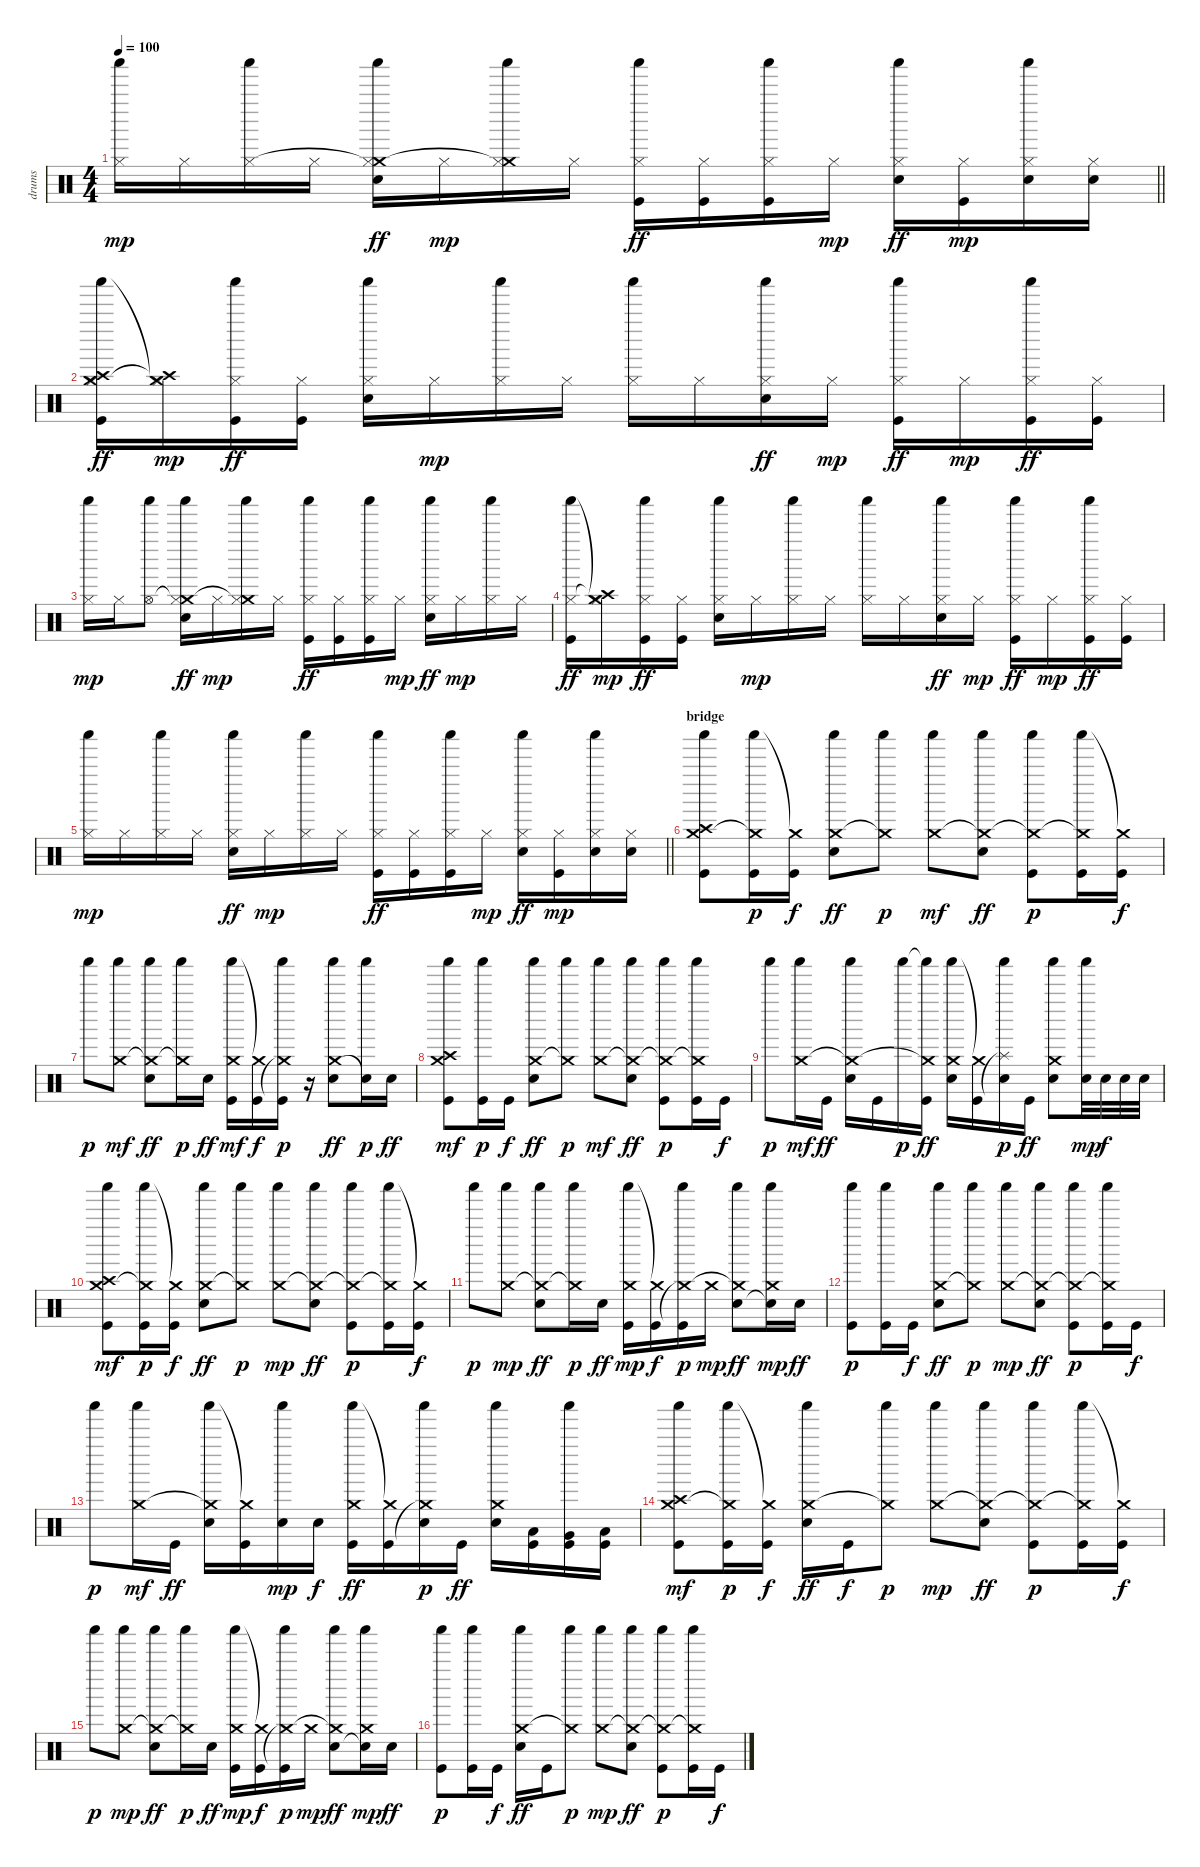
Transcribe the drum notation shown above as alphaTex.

\track ("drums" "drums") {instrument percussion}
\staff {score}
\articulation defaults
\ts (4 4)
\tempo 100
\clef neutral
\barLineRight lightlight
\ks c
("Shaker (hit)" "Hi-Hat (closed)").16{dy mp} "Hi-Hat (closed)".16 ("Shaker (hit)" "Hi-Hat (closed)").16 "Hi-Hat (closed)".16 ("Shaker (hit)" "Crash medium (hit)"{t} "Hi-Hat (closed)" "Electric Snare (hit)").16{dy ff} "Hi-Hat (closed)".16{dy mp} ("Shaker (hit)" "Crash medium (hit)"{t} "Hi-Hat (closed)").16 "Hi-Hat (closed)".16 ("Shaker (hit)" "Hi-Hat (closed)" "Kick (hit)").16{dy ff} ("Hi-Hat (closed)" "Kick (hit)").16 ("Shaker (hit)" "Hi-Hat (closed)" "Kick (hit)").16 "Hi-Hat (closed)".16{dy mp} ("Shaker (hit)" "Hi-Hat (closed)" "Electric Snare (hit)").16{dy ff} ("Hi-Hat (closed)" "Kick (hit)").16{dy mp} ("Shaker (hit)" "Hi-Hat (closed)" "Electric Snare (hit)").16 ("Hi-Hat (closed)" "Electric Snare (hit)").16 |
("Shaker (hit)" "Crash medium (hit)" "Crash high (hit)" "Hi-Hat (closed)" "Kick (hit)").16{dy ff} ("Crash medium (hit)"{t} "Crash high (hit)"{t} "Hi-Hat (closed)").16{dy mp} ("Shaker (hit)" "Hi-Hat (closed)" "Kick (hit)").16{dy ff} ("Hi-Hat (closed)" "Kick (hit)").16 ("Shaker (hit)" "Hi-Hat (closed)" "Electric Snare (hit)").16 "Hi-Hat (closed)".16{dy mp} ("Shaker (hit)" "Hi-Hat (closed)").16 "Hi-Hat (closed)".16 ("Shaker (hit)" "Hi-Hat (closed)").16 "Hi-Hat (closed)".16 ("Shaker (hit)" "Hi-Hat (closed)" "Electric Snare (hit)").16{dy ff} "Hi-Hat (closed)".16{dy mp} ("Shaker (hit)" "Hi-Hat (closed)" "Kick (hit)").16{dy ff} "Hi-Hat (closed)".16{dy mp} ("Shaker (hit)" "Hi-Hat (closed)" "Kick (hit)").16{dy ff} ("Hi-Hat (closed)" "Kick (hit)").16 |
("Shaker (hit)" "Hi-Hat (closed)").16{dy mp} "Hi-Hat (closed)".16 ("Shaker (hit)" "Hi-Hat (open)").8 ("Shaker (hit)" "Crash medium (hit)"{t} "Hi-Hat (closed)" "Electric Snare (hit)").16{dy ff} "Hi-Hat (closed)".16{dy mp} ("Shaker (hit)" "Crash medium (hit)"{t} "Hi-Hat (closed)").16 "Hi-Hat (closed)".16 ("Shaker (hit)" "Hi-Hat (closed)" "Kick (hit)").16{dy ff} ("Hi-Hat (closed)" "Kick (hit)").16 ("Shaker (hit)" "Hi-Hat (closed)" "Kick (hit)").16 "Hi-Hat (closed)".16{dy mp} ("Shaker (hit)" "Hi-Hat (closed)" "Electric Snare (hit)").16{dy ff} "Hi-Hat (closed)".16{dy mp} ("Shaker (hit)" "Hi-Hat (closed)").16 "Hi-Hat (closed)".16 |
("Shaker (hit)" "Hi-Hat (closed)" "Kick (hit)").16{dy ff} ("Crash medium (hit)"{t} "Crash high (hit)"{t} "Hi-Hat (closed)").16{dy mp} ("Shaker (hit)" "Hi-Hat (closed)" "Kick (hit)").16{dy ff} ("Hi-Hat (closed)" "Kick (hit)").16 ("Shaker (hit)" "Hi-Hat (closed)" "Electric Snare (hit)").16 "Hi-Hat (closed)".16{dy mp} ("Shaker (hit)" "Hi-Hat (closed)").16 "Hi-Hat (closed)".16 ("Shaker (hit)" "Hi-Hat (closed)").16 "Hi-Hat (closed)".16 ("Shaker (hit)" "Hi-Hat (closed)" "Electric Snare (hit)").16{dy ff} "Hi-Hat (closed)".16{dy mp} ("Shaker (hit)" "Hi-Hat (closed)" "Kick (hit)").16{dy ff} "Hi-Hat (closed)".16{dy mp} ("Shaker (hit)" "Hi-Hat (closed)" "Kick (hit)").16{dy ff} ("Hi-Hat (closed)" "Kick (hit)").16 |
\barLineRight lightlight
("Shaker (hit)" "Hi-Hat (closed)").16{dy mp} "Hi-Hat (closed)".16 ("Shaker (hit)" "Hi-Hat (closed)").16 "Hi-Hat (closed)".16 ("Shaker (hit)" "Hi-Hat (closed)" "Electric Snare (hit)").16{dy ff} "Hi-Hat (closed)".16{dy mp} ("Shaker (hit)" "Hi-Hat (closed)").16 "Hi-Hat (closed)".16 ("Shaker (hit)" "Hi-Hat (closed)" "Kick (hit)").16{dy ff} ("Hi-Hat (closed)" "Kick (hit)").16 ("Shaker (hit)" "Hi-Hat (closed)" "Kick (hit)").16 "Hi-Hat (closed)".16{dy mp} ("Shaker (hit)" "Hi-Hat (closed)" "Electric Snare (hit)").16{dy ff} ("Hi-Hat (closed)" "Kick (hit)").16{dy mp} ("Shaker (hit)" "Hi-Hat (closed)" "Electric Snare (hit)").16 ("Hi-Hat (closed)" "Electric Snare (hit)").16 |
\section ("" "bridge")
("Shaker (hit)" "Crash medium (hit)" "Crash high (hit)" "Kick (hit)").8 ("Shaker (hit)" "Crash medium (hit)"{t} "Kick (hit)").16{dy p} ("Crash medium (hit)"{t} "Kick (hit)").16{dy f} ("Shaker (hit)" "Crash medium (hit)" "Electric Snare (hit)").8{dy ff} ("Shaker (hit)" "Crash medium (hit)"{t}).8{dy p} ("Shaker (hit)" "Crash medium (hit)").8{dy mf} ("Shaker (hit)" "Crash medium (hit)"{t} "Electric Snare (hit)").8{dy ff} ("Shaker (hit)" "Crash medium (hit)"{t} "Kick (hit)").8{dy p} ("Shaker (hit)" "Crash medium (hit)"{t} "Kick (hit)").16 ("Crash medium (hit)"{t} "Kick (hit)").16{dy f} |
"Shaker (hit)".8{dy p} ("Shaker (hit)" "Crash medium (hit)").8{dy mf} ("Shaker (hit)" "Crash medium (hit)"{t} "Electric Snare (hit)").8{dy ff} ("Shaker (hit)" "Crash medium (hit)"{t}).16{dy p} "Electric Snare (hit)".16{dy ff} ("Shaker (hit)" "Crash medium (hit)" "Kick (hit)").16{dy mf} ("Crash medium (hit)"{t} "Kick (hit)").16{dy f} ("Shaker (hit)" "Crash medium (hit)"{t} "Kick (hit)").16{dy p} r.16 ("Shaker (hit)" "Crash medium (hit)" "Electric Snare (hit)").8{dy ff} ("Shaker (hit)" "Electric Snare (hit)"{t}).16{dy p} "Electric Snare (hit)".16{dy ff} |
("Shaker (hit)" "Crash medium (hit)" "Crash high (hit)" "Kick (hit)").8{dy mf} ("Shaker (hit)" "Kick (hit)").16{dy p} "Kick (hit)".16{dy f} ("Shaker (hit)" "Crash medium (hit)" "Electric Snare (hit)").8{dy ff} ("Shaker (hit)" "Crash medium (hit)"{t}).8{dy p} ("Shaker (hit)" "Crash medium (hit)").8{dy mf} ("Shaker (hit)" "Crash medium (hit)"{t} "Electric Snare (hit)").8{dy ff} ("Shaker (hit)" "Crash medium (hit)"{t} "Kick (hit)").8{dy p} ("Shaker (hit)" "Crash medium (hit)"{t} "Kick (hit)").16 "Kick (hit)".16{dy f} |
"Shaker (hit)".8{dy p} ("Shaker (hit)" "Crash medium (hit)").16{dy mf} "Kick (hit)".16{dy ff} ("Shaker (hit)" "Crash medium (hit)"{t} "Electric Snare (hit)").16 "Kick (hit)".16 "Shaker (hit)".16{dy p} ("Shaker (hit)"{t} "Crash medium (hit)"{t} "Kick (hit)").16{dy ff} ("Shaker (hit)" "Crash medium (hit)" "Electric Snare (hit)").16 ("Crash medium (hit)"{t} "Kick (hit)").16 ("Shaker (hit)" "Splash (hit)"{t} "Electric Snare (hit)").16{dy p} "Kick (hit)".16{dy ff} ("Shaker (hit)" "Crash medium (hit)" "Electric Snare (hit)").8 ("Shaker (hit)" "Electric Snare (hit)").32{dy mp} "Electric Snare (hit)".32{dy f} "Electric Snare (hit)".32 "Electric Snare (hit)".32 |
("Shaker (hit)" "Crash medium (hit)" "Crash high (hit)" "Kick (hit)").8{dy mf} ("Shaker (hit)" "Crash medium (hit)"{t} "Kick (hit)").16{dy p} ("Crash medium (hit)"{t} "Kick (hit)").16{dy f} ("Shaker (hit)" "Crash medium (hit)" "Electric Snare (hit)").8{dy ff} ("Shaker (hit)" "Crash medium (hit)"{t}).8{dy p} ("Shaker (hit)" "Crash medium (hit)").8{dy mp} ("Shaker (hit)" "Crash medium (hit)"{t} "Electric Snare (hit)").8{dy ff} ("Shaker (hit)" "Crash medium (hit)"{t} "Kick (hit)").8{dy p} ("Shaker (hit)" "Crash medium (hit)"{t} "Kick (hit)").16 ("Crash medium (hit)"{t} "Kick (hit)").16{dy f} |
"Shaker (hit)".8{dy p} ("Shaker (hit)" "Crash medium (hit)").8{dy mp} ("Shaker (hit)" "Crash medium (hit)"{t} "Electric Snare (hit)").8{dy ff} ("Shaker (hit)" "Crash medium (hit)"{t}).16{dy p} "Electric Snare (hit)".16{dy ff} ("Shaker (hit)" "Crash medium (hit)" "Kick (hit)").16{dy mp} ("Crash medium (hit)"{t} "Kick (hit)").16{dy f} ("Shaker (hit)" "Crash medium (hit)"{t} "Kick (hit)").16{dy p} "Crash medium (hit)".16{dy mp} ("Shaker (hit)" "Crash medium (hit)"{t} "Electric Snare (hit)").8{dy ff} ("Shaker (hit)" "Crash medium (hit)" "Electric Snare (hit)"{t}).16{dy mp} "Electric Snare (hit)".16{dy ff} |
("Shaker (hit)" "Kick (hit)").8{dy p} ("Shaker (hit)" "Kick (hit)").16 "Kick (hit)".16{dy f} ("Shaker (hit)" "Crash medium (hit)" "Electric Snare (hit)").8{dy ff} ("Shaker (hit)" "Crash medium (hit)"{t}).8{dy p} ("Shaker (hit)" "Crash medium (hit)").8{dy mp} ("Shaker (hit)" "Crash medium (hit)"{t} "Electric Snare (hit)").8{dy ff} ("Shaker (hit)" "Crash medium (hit)"{t} "Kick (hit)").8{dy p} ("Shaker (hit)" "Crash medium (hit)"{t} "Kick (hit)").16 "Kick (hit)".16{dy f} |
"Shaker (hit)".8{dy p} ("Shaker (hit)" "Crash medium (hit)").16{dy mf} "Kick (hit)".16{dy ff} ("Shaker (hit)" "Crash medium (hit)"{t} "Electric Snare (hit)").16 ("Crash medium (hit)"{t} "Kick (hit)").16 ("Shaker (hit)" "Electric Snare (hit)").16{dy mp} "Electric Snare (hit)".16{dy f} ("Shaker (hit)" "Crash medium (hit)" "Kick (hit)").16{dy ff} ("Crash medium (hit)"{t} "Kick (hit)").16 ("Shaker (hit)" "Crash medium (hit)"{t} "Electric Snare (hit)").16{dy p} "Kick (hit)".16{dy ff} ("Shaker (hit)" "Crash medium (hit)" "Electric Snare (hit)").16 ("Low Tom (hit)" "Kick (hit)").16 ("Shaker (hit)" "Very Low Tom (hit)" "Kick (hit)").16 ("Low Floor Tom (hit)" "Kick (hit)").16 |
("Shaker (hit)" "Crash medium (hit)" "Crash high (hit)" "Kick (hit)").8{dy mf} ("Shaker (hit)" "Crash medium (hit)"{t} "Kick (hit)").16{dy p} ("Crash medium (hit)"{t} "Kick (hit)").16{dy f} ("Shaker (hit)" "Crash medium (hit)" "Electric Snare (hit)").16{dy ff} "Kick (hit)".16{dy f} ("Shaker (hit)" "Crash medium (hit)"{t}).8{dy p} ("Shaker (hit)" "Crash medium (hit)").8{dy mp} ("Shaker (hit)" "Crash medium (hit)"{t} "Electric Snare (hit)").8{dy ff} ("Shaker (hit)" "Crash medium (hit)"{t} "Kick (hit)").8{dy p} ("Shaker (hit)" "Crash medium (hit)"{t} "Kick (hit)").16 ("Crash medium (hit)"{t} "Kick (hit)").16{dy f} |
"Shaker (hit)".8{dy p} ("Shaker (hit)" "Crash medium (hit)").8{dy mp} ("Shaker (hit)" "Crash medium (hit)"{t} "Electric Snare (hit)").8{dy ff} ("Shaker (hit)" "Crash medium (hit)"{t}).16{dy p} "Electric Snare (hit)".16{dy ff} ("Shaker (hit)" "Crash medium (hit)" "Kick (hit)").16{dy mp} ("Crash medium (hit)"{t} "Kick (hit)").16{dy f} ("Shaker (hit)" "Crash medium (hit)"{t} "Kick (hit)").16{dy p} "Crash medium (hit)".16{dy mp} ("Shaker (hit)" "Crash medium (hit)"{t} "Electric Snare (hit)").8{dy ff} ("Shaker (hit)" "Crash medium (hit)" "Electric Snare (hit)"{t}).16{dy mp} "Electric Snare (hit)".16{dy ff} |
("Shaker (hit)" "Kick (hit)").8{dy p} ("Shaker (hit)" "Kick (hit)").16 "Kick (hit)".16{dy f} ("Shaker (hit)" "Crash medium (hit)" "Electric Snare (hit)").16{dy ff} "Kick (hit)".16 ("Shaker (hit)" "Crash medium (hit)"{t}).8{dy p} ("Shaker (hit)" "Crash medium (hit)").8{dy mp} ("Shaker (hit)" "Crash medium (hit)"{t} "Electric Snare (hit)").8{dy ff} ("Shaker (hit)" "Crash medium (hit)"{t} "Kick (hit)").8{dy p} ("Shaker (hit)" "Crash medium (hit)"{t} "Kick (hit)").16 "Kick (hit)".16{dy f}
